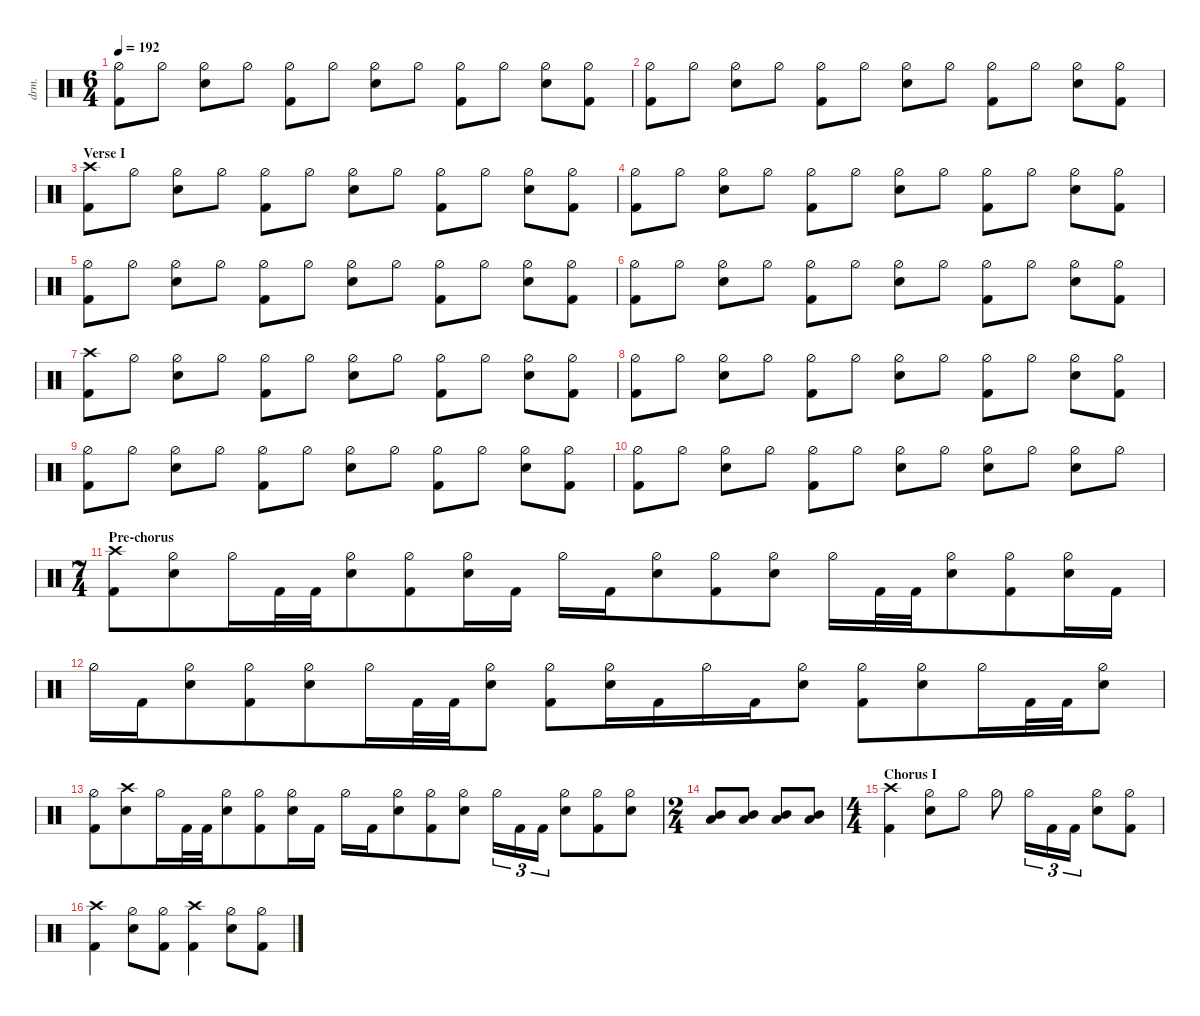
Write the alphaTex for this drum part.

\defaultSystemsLayout 4
\hideDynamics
\bracketExtendMode nobrackets
\otherSystemsTrackNameOrientation horizontal
\track ("Drumkit" "drm.") {defaultSystemsLayout 4 multiBarRest instrument percussion}
\staff
\articulation defaults
\ts (6 4)
\tempo 192
\clef neutral
\ks c
("Kick (hit) 2" "Hi-Hat (half)").8{dy f beam Down} "Hi-Hat (half)".8{beam Down} ("Hi-Hat (half)" "Snare (hit) 2").8{beam Down} "Hi-Hat (half)".8{beam Down} ("Kick (hit) 2" "Hi-Hat (half)").8{beam Down} "Hi-Hat (half)".8{beam Down} ("Hi-Hat (half)" "Snare (hit) 2").8{beam Down} "Hi-Hat (half)".8{beam Down} ("Kick (hit) 2" "Hi-Hat (half)").8{beam Down} "Hi-Hat (half)".8{beam Down} ("Hi-Hat (half)" "Snare (hit) 2").8{beam Down} ("Hi-Hat (half)" "Kick (hit) 2").8{beam Down} |
("Kick (hit) 2" "Hi-Hat (half)").8{beam Down} "Hi-Hat (half)".8{beam Down} ("Hi-Hat (half)" "Snare (hit) 2").8{beam Down} "Hi-Hat (half)".8{beam Down} ("Kick (hit) 2" "Hi-Hat (half)").8{beam Down} "Hi-Hat (half)".8{beam Down} ("Hi-Hat (half)" "Snare (hit) 2").8{beam Down} "Hi-Hat (half)".8{beam Down} ("Kick (hit) 2" "Hi-Hat (half)").8{beam Down} "Hi-Hat (half)".8{beam Down} ("Hi-Hat (half)" "Snare (hit) 2").8{beam Down} ("Hi-Hat (half)" "Kick (hit) 2").8{beam Down} |
\section ("" "Verse I")
("Kick (hit) 2" "Crash high (hit)").8{beam Down} "Hi-Hat (half)".8{beam Down} ("Hi-Hat (half)" "Snare (hit) 2").8{beam Down} "Hi-Hat (half)".8{beam Down} ("Kick (hit) 2" "Hi-Hat (half)").8{beam Down} "Hi-Hat (half)".8{beam Down} ("Hi-Hat (half)" "Snare (hit) 2").8{beam Down} "Hi-Hat (half)".8{beam Down} ("Kick (hit) 2" "Hi-Hat (half)").8{beam Down} "Hi-Hat (half)".8{beam Down} ("Hi-Hat (half)" "Snare (hit) 2").8{beam Down} ("Hi-Hat (half)" "Kick (hit) 2").8{beam Down} |
("Kick (hit) 2" "Hi-Hat (half)").8{beam Down} "Hi-Hat (half)".8{beam Down} ("Hi-Hat (half)" "Snare (hit) 2").8{beam Down} "Hi-Hat (half)".8{beam Down} ("Kick (hit) 2" "Hi-Hat (half)").8{beam Down} "Hi-Hat (half)".8{beam Down} ("Hi-Hat (half)" "Snare (hit) 2").8{beam Down} "Hi-Hat (half)".8{beam Down} ("Kick (hit) 2" "Hi-Hat (half)").8{beam Down} "Hi-Hat (half)".8{beam Down} ("Hi-Hat (half)" "Snare (hit) 2").8{beam Down} ("Hi-Hat (half)" "Kick (hit) 2").8{beam Down} |
("Kick (hit) 2" "Hi-Hat (half)").8{beam Down} "Hi-Hat (half)".8{beam Down} ("Hi-Hat (half)" "Snare (hit) 2").8{beam Down} "Hi-Hat (half)".8{beam Down} ("Kick (hit) 2" "Hi-Hat (half)").8{beam Down} "Hi-Hat (half)".8{beam Down} ("Hi-Hat (half)" "Snare (hit) 2").8{beam Down} "Hi-Hat (half)".8{beam Down} ("Kick (hit) 2" "Hi-Hat (half)").8{beam Down} "Hi-Hat (half)".8{beam Down} ("Hi-Hat (half)" "Snare (hit) 2").8{beam Down} ("Hi-Hat (half)" "Kick (hit) 2").8{beam Down} |
("Kick (hit) 2" "Hi-Hat (half)").8{beam Down} "Hi-Hat (half)".8{beam Down} ("Hi-Hat (half)" "Snare (hit) 2").8{beam Down} "Hi-Hat (half)".8{beam Down} ("Kick (hit) 2" "Hi-Hat (half)").8{beam Down} "Hi-Hat (half)".8{beam Down} ("Hi-Hat (half)" "Snare (hit) 2").8{beam Down} "Hi-Hat (half)".8{beam Down} ("Kick (hit) 2" "Hi-Hat (half)").8{beam Down} "Hi-Hat (half)".8{beam Down} ("Hi-Hat (half)" "Snare (hit) 2").8{beam Down} ("Hi-Hat (half)" "Kick (hit) 2").8{beam Down} |
("Kick (hit) 2" "Crash high (hit)").8{beam Down} "Hi-Hat (half)".8{beam Down} ("Hi-Hat (half)" "Snare (hit) 2").8{beam Down} "Hi-Hat (half)".8{beam Down} ("Kick (hit) 2" "Hi-Hat (half)").8{beam Down} "Hi-Hat (half)".8{beam Down} ("Hi-Hat (half)" "Snare (hit) 2").8{beam Down} "Hi-Hat (half)".8{beam Down} ("Kick (hit) 2" "Hi-Hat (half)").8{beam Down} "Hi-Hat (half)".8{beam Down} ("Hi-Hat (half)" "Snare (hit) 2").8{beam Down} ("Hi-Hat (half)" "Kick (hit) 2").8{beam Down} |
("Kick (hit) 2" "Hi-Hat (half)").8{beam Down} "Hi-Hat (half)".8{beam Down} ("Hi-Hat (half)" "Snare (hit) 2").8{beam Down} "Hi-Hat (half)".8{beam Down} ("Kick (hit) 2" "Hi-Hat (half)").8{beam Down} "Hi-Hat (half)".8{beam Down} ("Hi-Hat (half)" "Snare (hit) 2").8{beam Down} "Hi-Hat (half)".8{beam Down} ("Kick (hit) 2" "Hi-Hat (half)").8{beam Down} "Hi-Hat (half)".8{beam Down} ("Hi-Hat (half)" "Snare (hit) 2").8{beam Down} ("Hi-Hat (half)" "Kick (hit) 2").8{beam Down} |
("Kick (hit) 2" "Hi-Hat (half)").8{beam Down} "Hi-Hat (half)".8{beam Down} ("Hi-Hat (half)" "Snare (hit) 2").8{beam Down} "Hi-Hat (half)".8{beam Down} ("Kick (hit) 2" "Hi-Hat (half)").8{beam Down} "Hi-Hat (half)".8{beam Down} ("Hi-Hat (half)" "Snare (hit) 2").8{beam Down} "Hi-Hat (half)".8{beam Down} ("Kick (hit) 2" "Hi-Hat (half)").8{beam Down} "Hi-Hat (half)".8{beam Down} ("Hi-Hat (half)" "Snare (hit) 2").8{beam Down} ("Hi-Hat (half)" "Kick (hit) 2").8{beam Down} |
("Kick (hit) 2" "Hi-Hat (half)").8{beam Down} "Hi-Hat (half)".8{beam Down} ("Hi-Hat (half)" "Snare (hit) 2").8{beam Down} "Hi-Hat (half)".8{beam Down} ("Kick (hit) 2" "Hi-Hat (half)").8{beam Down} "Hi-Hat (half)".8{beam Down} ("Hi-Hat (half)" "Snare (hit) 2").8{beam Down} "Hi-Hat (half)".8{beam Down} ("Hi-Hat (half)" "Snare (hit) 2").8{beam Down} "Hi-Hat (half)".8{beam Down} ("Hi-Hat (half)" "Snare (hit) 2").8{beam Down} "Hi-Hat (half)".8{beam Down} |
\ts (7 4)
\beaming (8 6 4 4)
\section ("" "Pre-chorus")
("Crash high (hit)" "Kick (hit) 2").8{beam Down} ("Hi-Hat (half)" "Snare (hit) 2").8{beam Down} "Hi-Hat (half)".16{beam Down} "Kick (hit) 2".32{beam Down} "Kick (hit) 2".32{beam Down} ("Hi-Hat (half)" "Snare (hit) 2").8{beam Down} ("Hi-Hat (half)" "Kick (hit) 2").8{beam Down} ("Hi-Hat (half)" "Snare (hit) 2").16{beam Down} "Kick (hit) 2".16{beam Down} "Hi-Hat (half)".16{beam Down} "Kick (hit) 2".16{beam Down} ("Hi-Hat (half)" "Snare (hit) 2").8{beam Down} ("Kick (hit) 2" "Hi-Hat (half)").8{beam Down} ("Hi-Hat (half)" "Snare (hit) 2").8{beam Down} "Hi-Hat (half)".16{beam Down} "Kick (hit) 2".32{beam Down} "Kick (hit) 2".32{beam Down} ("Hi-Hat (half)" "Snare (hit) 2").8{beam Down} ("Hi-Hat (half)" "Kick (hit) 2").8{beam Down} ("Hi-Hat (half)" "Snare (hit) 2").16{beam Down} "Kick (hit) 2".16{beam Down} |
"Hi-Hat (half)".16{beam Down} "Kick (hit) 2".16{beam Down} ("Hi-Hat (half)" "Snare (hit) 2").8{beam Down} ("Kick (hit) 2" "Hi-Hat (half)").8{beam Down} ("Hi-Hat (half)" "Snare (hit) 2").8{beam Down} "Hi-Hat (half)".16{beam Down} "Kick (hit) 2".32{beam Down} "Kick (hit) 2".32{beam Down} ("Hi-Hat (half)" "Snare (hit) 2").8{beam Down} ("Hi-Hat (half)" "Kick (hit) 2").8{beam Down} ("Hi-Hat (half)" "Snare (hit) 2").16{beam Down} "Kick (hit) 2".16{beam Down} "Hi-Hat (half)".16{beam Down} "Kick (hit) 2".16{beam Down} ("Hi-Hat (half)" "Snare (hit) 2").8{beam Down} ("Kick (hit) 2" "Hi-Hat (half)").8{beam Down} ("Hi-Hat (half)" "Snare (hit) 2").8{beam Down} "Hi-Hat (half)".16{beam Down} "Kick (hit) 2".32{beam Down} "Kick (hit) 2".32{beam Down} ("Hi-Hat (half)" "Snare (hit) 2").8{beam Down} |
("Kick (hit) 2" "Hi-Hat (half)").8{beam Down} ("Snare (hit) 2" "Crash high (hit)").8{beam Down} "Hi-Hat (half)".16{beam Down} "Kick (hit) 2".32{beam Down} "Kick (hit) 2".32{beam Down} ("Hi-Hat (half)" "Snare (hit) 2").8{beam Down} ("Hi-Hat (half)" "Kick (hit) 2").8{beam Down} ("Hi-Hat (half)" "Snare (hit) 2").16{beam Down} "Kick (hit) 2".16{beam Down} "Hi-Hat (half)".16{beam Down} "Kick (hit) 2".16{beam Down} ("Hi-Hat (half)" "Snare (hit) 2").8{beam Down} ("Kick (hit) 2" "Hi-Hat (half)").8{beam Down} ("Hi-Hat (half)" "Snare (hit) 2").8{beam Down} "Hi-Hat (half)".16{tu (3 2) beam Down} "Kick (hit) 2".16{tu (3 2) beam Down} "Kick (hit) 2".16{tu (3 2) beam Down} ("Hi-Hat (half)" "Snare (hit) 2").8{beam Down} ("Hi-Hat (half)" "Kick (hit) 2").8{beam Down} ("Hi-Hat (half)" "Snare (hit) 2").8{beam Down} |
\ts (2 4)
\beaming (8 2 2)
("Mid Tom (hit)" "Low Tom (hit)").8{dy fff beam Up} ("Mid Tom (hit)" "Low Tom (hit)").8{beam Up} ("Mid Tom (hit)" "Low Tom (hit)").8{beam Up} ("Mid Tom (hit)" "Low Tom (hit)").8{beam Up} |
\ts (4 4)
\beaming (8 2 2 2 2)
\section ("" "Chorus I")
("Crash high (hit)" "Kick (hit) 2").4{dy f beam Down} ("Hi-Hat (half)" "Snare (hit) 2").8{beam Down} "Hi-Hat (half)".8{beam Down} "Hi-Hat (half)".8{beam Down} "Hi-Hat (half)".16{tu (3 2) beam Down} "Kick (hit) 2".16{tu (3 2) beam Down} "Kick (hit) 2".16{tu (3 2) beam Down} ("Hi-Hat (half)" "Snare (hit) 2").8{beam Down} ("Hi-Hat (half)" "Kick (hit) 2").8{beam Down} |
("Crash high (hit)" "Kick (hit) 2").4{beam Down} ("Hi-Hat (half)" "Snare (hit) 2").8{beam Down} ("Hi-Hat (half)" "Kick (hit) 2").8{beam Down} ("Crash high (hit)" "Kick (hit) 2").4{beam Down} ("Hi-Hat (half)" "Snare (hit) 2").8{beam Down} ("Hi-Hat (half)" "Kick (hit) 2").8{beam Down}
